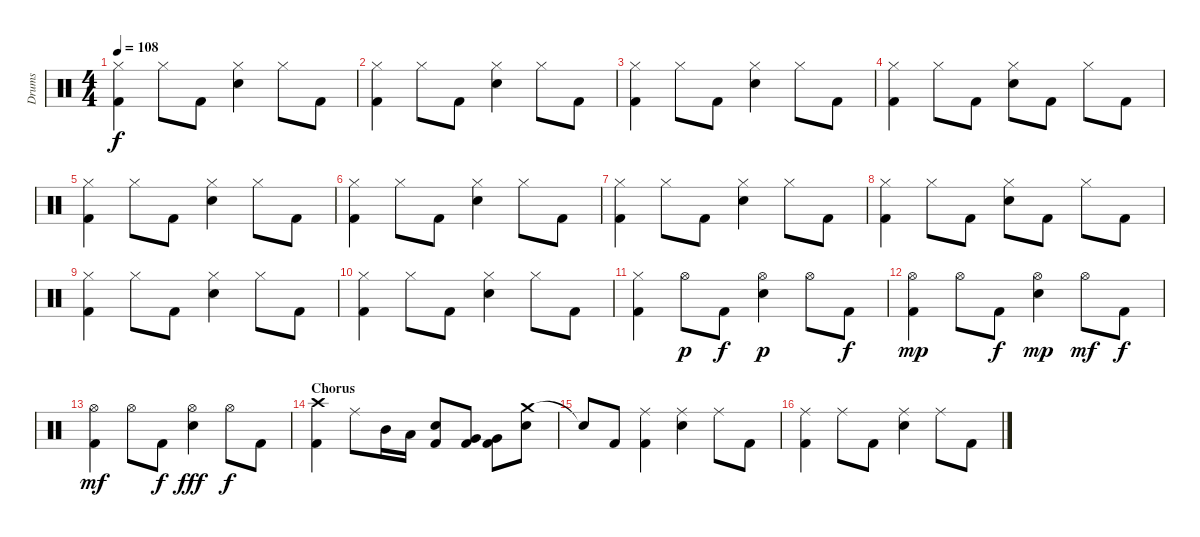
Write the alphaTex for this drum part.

\track ("Drums" "Drums") {instrument percussion}
\staff {score}
\articulation defaults
\ts (4 4)
\tempo 108
\clef neutral
\ks c
("Hi-Hat (closed)" "Kick (hit) 2").4{dy f} "Hi-Hat (closed)".8 "Kick (hit) 2".8 ("Hi-Hat (closed)" "Electric Snare (hit)").4 "Hi-Hat (closed)".8 "Kick (hit) 2".8 |
("Hi-Hat (closed)" "Kick (hit) 2").4 "Hi-Hat (closed)".8 "Kick (hit) 2".8 ("Hi-Hat (closed)" "Electric Snare (hit)").4 "Hi-Hat (closed)".8 "Kick (hit) 2".8 |
("Hi-Hat (closed)" "Kick (hit) 2").4 "Hi-Hat (closed)".8 "Kick (hit) 2".8 ("Hi-Hat (closed)" "Electric Snare (hit)").4 "Hi-Hat (closed)".8 "Kick (hit) 2".8 |
("Hi-Hat (closed)" "Kick (hit) 2").4 "Hi-Hat (closed)".8 "Kick (hit) 2".8 ("Hi-Hat (closed)" "Electric Snare (hit)").8 "Kick (hit) 2".8 "Hi-Hat (closed)".8 "Kick (hit) 2".8 |
("Hi-Hat (closed)" "Kick (hit) 2").4 "Hi-Hat (closed)".8 "Kick (hit) 2".8 ("Hi-Hat (closed)" "Electric Snare (hit)").4 "Hi-Hat (closed)".8 "Kick (hit) 2".8 |
("Hi-Hat (closed)" "Kick (hit) 2").4 "Hi-Hat (closed)".8 "Kick (hit) 2".8 ("Hi-Hat (closed)" "Electric Snare (hit)").4 "Hi-Hat (closed)".8 "Kick (hit) 2".8 |
("Hi-Hat (closed)" "Kick (hit) 2").4 "Hi-Hat (closed)".8 "Kick (hit) 2".8 ("Hi-Hat (closed)" "Electric Snare (hit)").4 "Hi-Hat (closed)".8 "Kick (hit) 2".8 |
("Hi-Hat (closed)" "Kick (hit) 2").4 "Hi-Hat (closed)".8 "Kick (hit) 2".8 ("Hi-Hat (closed)" "Electric Snare (hit)").8 "Kick (hit) 2".8 "Hi-Hat (closed)".8 "Kick (hit) 2".8 |
("Hi-Hat (closed)" "Kick (hit) 2").4 "Hi-Hat (closed)".8 "Kick (hit) 2".8 ("Hi-Hat (closed)" "Electric Snare (hit)").4 "Hi-Hat (closed)".8 "Kick (hit) 2".8 |
("Hi-Hat (closed)" "Kick (hit) 2").4 "Hi-Hat (closed)".8 "Kick (hit) 2".8 ("Hi-Hat (closed)" "Electric Snare (hit)").4 "Hi-Hat (closed)".8 "Kick (hit) 2".8 |
("Hi-Hat (closed)" "Kick (hit) 2").4 "Hi-Hat (open)".8{dy p} "Kick (hit) 2".8{dy f} ("Hi-Hat (open)" "Electric Snare (hit)").4{dy p} "Hi-Hat (open)".8 "Kick (hit) 2".8{dy f} |
("Hi-Hat (open)" "Kick (hit) 2").4{dy mp} "Hi-Hat (open)".8 "Kick (hit) 2".8{dy f} ("Hi-Hat (open)" "Electric Snare (hit)").4{dy mp} "Hi-Hat (open)".8{dy mf} "Kick (hit) 2".8{dy f} |
("Hi-Hat (open)" "Kick (hit) 2").4{dy mf} "Hi-Hat (open)".8 "Kick (hit) 2".8{dy f} ("Hi-Hat (open)" "Electric Snare (hit)").4{dy fff} "Hi-Hat (open)".8{dy f} "Kick (hit) 2".8 |
\section ("" "Chorus")
("Crash high (hit)" "Kick (hit) 2").4{volume 13} "Ride (middle)".8 "Mid Tom (hit)".16 "Low Tom (hit)".16 ("Electric Snare (hit)" "Kick (hit) 2").8 ("Very Low Tom (hit)" "Kick (hit) 2").8 ("Very Low Tom (hit)" "Kick (hit) 2").8 ("Crash medium (hit)" "Electric Snare (hit)").8 |
"Snare (hit)"{t}.8 "Kick (hit) 2".8 ("Ride (middle)" "Kick (hit) 2").4 ("Ride (middle)" "Electric Snare (hit)").4 "Ride (middle)".8 "Kick (hit) 2".8 |
("Ride (middle)" "Kick (hit) 2").4 "Ride (middle)".8 "Kick (hit) 2".8 ("Ride (middle)" "Electric Snare (hit)").4 "Ride (middle)".8 "Kick (hit) 2".8
